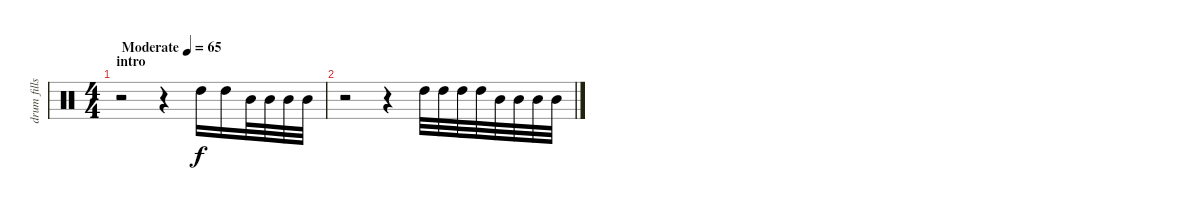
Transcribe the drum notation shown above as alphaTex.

\track ("drum fills" "drum fills") {instrument percussion}
\staff {score}
\articulation defaults
\ts (4 4)
\section ("" "intro ")
\tempo (65 "Moderate")
\clef neutral
\ks c
r.2{dy f} r.4 "High Tom (hit)".16 "High Tom (hit)".16 "Mid Tom (hit)".32 "Mid Tom (hit)".32 "Mid Tom (hit)".32 "Mid Tom (hit)".32 |
r.2 r.4 "High Tom (hit)".32 "High Tom (hit)".32 "High Tom (hit)".32 "High Tom (hit)".32 "Mid Tom (hit)".32 "Mid Tom (hit)".32 "Mid Tom (hit)".32 "Mid Tom (hit)".32
